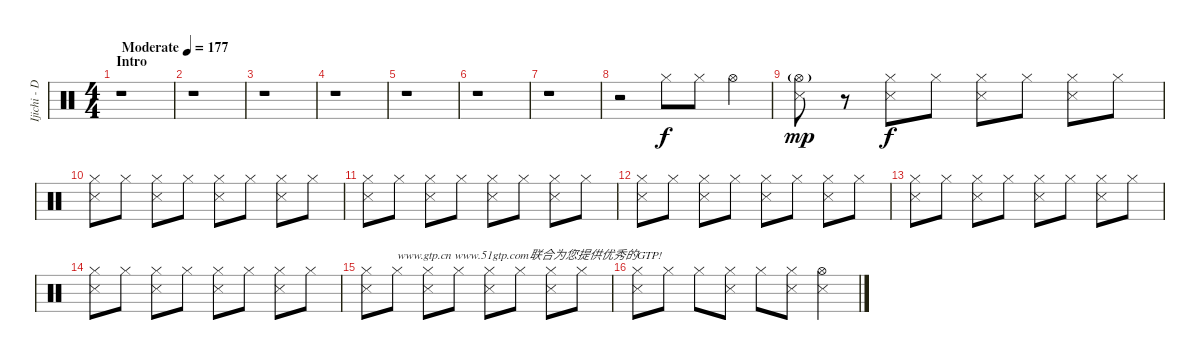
\track ("Ijichi - Drums" "Ijichi - D") {instrument percussion}
\staff {score}
\articulation defaults
\ts (4 4)
\section ("" "Intro")
\tempo (177 "Moderate")
\clef neutral
\ks c
r.1{dy f} |
r.1 |
r.1 |
r.1 |
r.1 |
r.1 |
r.1 |
r.2 "Hi-Hat (closed)".8 "Hi-Hat (closed)".8 "Hi-Hat (open)".4 |
("Hi-Hat (open)"{g} "Snare (side stick) 3").8{dy mp} r.8 ("Hi-Hat (closed)" "Snare (side stick) 3").8{dy f} "Hi-Hat (closed)".8 ("Hi-Hat (closed)" "Snare (side stick) 3").8 "Hi-Hat (closed)".8 ("Hi-Hat (closed)" "Snare (side stick) 3").8 "Hi-Hat (closed)".8 |
("Hi-Hat (closed)" "Snare (side stick) 3").8 "Hi-Hat (closed)".8 ("Hi-Hat (closed)" "Snare (side stick) 3").8 "Hi-Hat (closed)".8 ("Hi-Hat (closed)" "Snare (side stick) 3").8 "Hi-Hat (closed)".8 ("Hi-Hat (closed)" "Snare (side stick) 3").8 "Hi-Hat (closed)".8 |
("Hi-Hat (closed)" "Snare (side stick) 3").8 "Hi-Hat (closed)".8 ("Hi-Hat (closed)" "Snare (side stick) 3").8 "Hi-Hat (closed)".8 ("Hi-Hat (closed)" "Snare (side stick) 3").8 "Hi-Hat (closed)".8 ("Hi-Hat (closed)" "Snare (side stick) 3").8 "Hi-Hat (closed)".8 |
("Hi-Hat (closed)" "Snare (side stick) 3").8 "Hi-Hat (closed)".8 ("Hi-Hat (closed)" "Snare (side stick) 3").8 "Hi-Hat (closed)".8 ("Hi-Hat (closed)" "Snare (side stick) 3").8 "Hi-Hat (closed)".8 ("Hi-Hat (closed)" "Snare (side stick) 3").8 "Hi-Hat (closed)".8 |
("Hi-Hat (closed)" "Snare (side stick) 3").8 "Hi-Hat (closed)".8 ("Hi-Hat (closed)" "Snare (side stick) 3").8 "Hi-Hat (closed)".8 ("Hi-Hat (closed)" "Snare (side stick) 3").8 "Hi-Hat (closed)".8 ("Hi-Hat (closed)" "Snare (side stick) 3").8 "Hi-Hat (closed)".8 |
("Hi-Hat (closed)" "Snare (side stick) 3").8 "Hi-Hat (closed)".8 ("Hi-Hat (closed)" "Snare (side stick) 3").8 "Hi-Hat (closed)".8 ("Hi-Hat (closed)" "Snare (side stick) 3").8 "Hi-Hat (closed)".8 ("Hi-Hat (closed)" "Snare (side stick) 3").8 "Hi-Hat (closed)".8 |
("Hi-Hat (closed)" "Snare (side stick) 3").8 "Hi-Hat (closed)".8{txt "www.gtp.cn www.51gtp.com联合为您提供优秀的GTP!"} ("Hi-Hat (closed)" "Snare (side stick) 3").8 "Hi-Hat (closed)".8 ("Hi-Hat (closed)" "Snare (side stick) 3").8 "Hi-Hat (closed)".8 ("Hi-Hat (closed)" "Snare (side stick) 3").8 "Hi-Hat (closed)".8 |
("Hi-Hat (closed)" "Snare (side stick) 3").8 "Hi-Hat (closed)".8 "Hi-Hat (closed)".8 ("Hi-Hat (closed)" "Snare (side stick) 3").8 "Hi-Hat (closed)".8 ("Hi-Hat (closed)" "Snare (side stick) 3").8 ("Hi-Hat (open)" "Snare (side stick) 3").4
